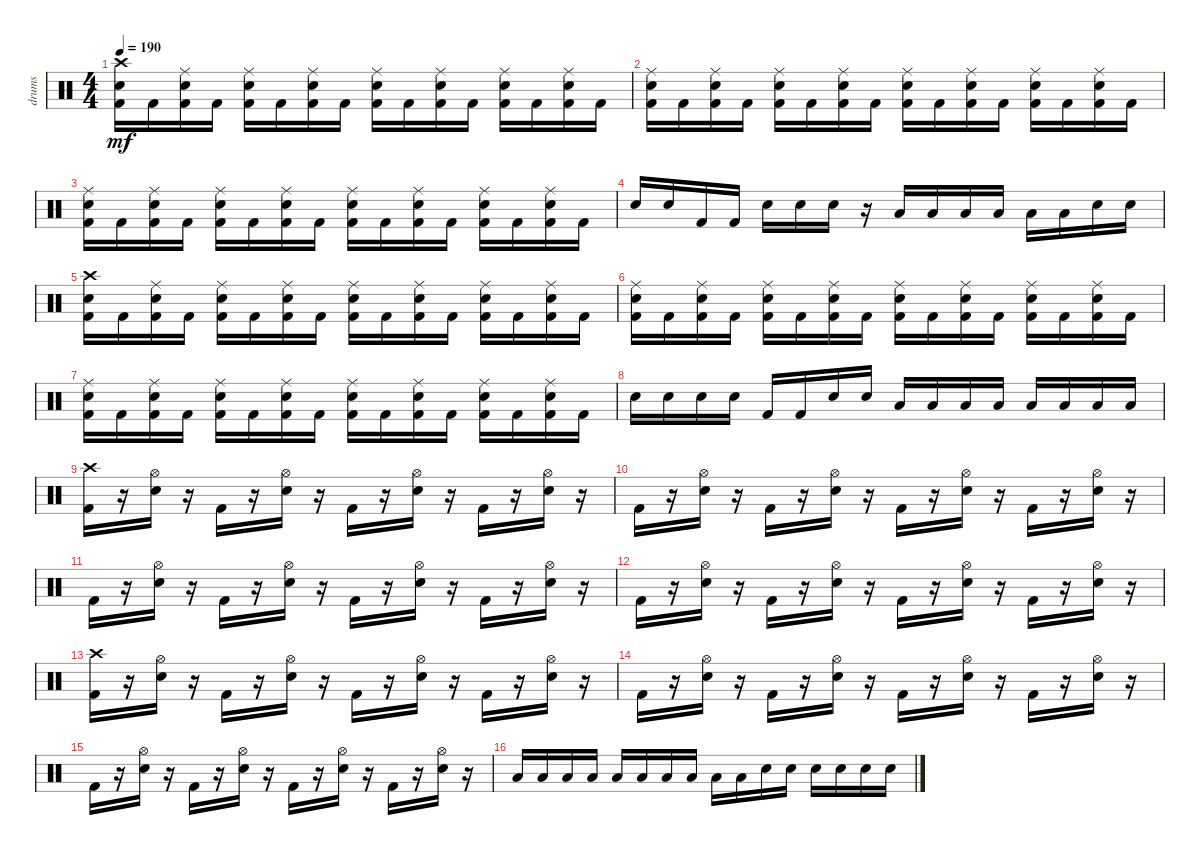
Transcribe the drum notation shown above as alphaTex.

\track ("drums               " "drums     ") {instrument percussion}
\staff {score}
\articulation defaults
\ts (4 4)
\tempo 190
\clef neutral
\ks c
("Kick (hit) 2" "Snare (hit) 2" "Crash high (hit)").16{dy mf} "Kick (hit) 2".16 ("Kick (hit) 2" "Ride (middle)" "Snare (hit) 2").16 "Kick (hit) 2".16 ("Kick (hit) 2" "Snare (hit) 2" "Ride (middle)").16 "Kick (hit) 2".16 ("Kick (hit) 2" "Ride (middle)" "Snare (hit) 2").16 "Kick (hit) 2".16 ("Kick (hit) 2" "Snare (hit) 2" "Ride (middle)").16 "Kick (hit) 2".16 ("Kick (hit) 2" "Ride (middle)" "Snare (hit) 2").16 "Kick (hit) 2".16 ("Kick (hit) 2" "Snare (hit) 2" "Ride (middle)").16 "Kick (hit) 2".16 ("Kick (hit) 2" "Ride (middle)" "Snare (hit) 2").16 "Kick (hit) 2".16 |
("Kick (hit) 2" "Snare (hit) 2" "Ride (middle)").16 "Kick (hit) 2".16 ("Kick (hit) 2" "Ride (middle)" "Snare (hit) 2").16 "Kick (hit) 2".16 ("Kick (hit) 2" "Snare (hit) 2" "Ride (middle)").16 "Kick (hit) 2".16 ("Kick (hit) 2" "Ride (middle)" "Snare (hit) 2").16 "Kick (hit) 2".16 ("Kick (hit) 2" "Snare (hit) 2" "Ride (middle)").16 "Kick (hit) 2".16 ("Kick (hit) 2" "Ride (middle)" "Snare (hit) 2").16 "Kick (hit) 2".16 ("Kick (hit) 2" "Snare (hit) 2" "Ride (middle)").16 "Kick (hit) 2".16 ("Kick (hit) 2" "Ride (middle)" "Snare (hit) 2").16 "Kick (hit) 2".16 |
("Kick (hit) 2" "Snare (hit) 2" "Ride (middle)").16 "Kick (hit) 2".16 ("Kick (hit) 2" "Ride (middle)" "Snare (hit) 2").16 "Kick (hit) 2".16 ("Kick (hit) 2" "Snare (hit) 2" "Ride (middle)").16 "Kick (hit) 2".16 ("Kick (hit) 2" "Ride (middle)" "Snare (hit) 2").16 "Kick (hit) 2".16 ("Kick (hit) 2" "Snare (hit) 2" "Ride (middle)").16 "Kick (hit) 2".16 ("Kick (hit) 2" "Ride (middle)" "Snare (hit) 2").16 "Kick (hit) 2".16 ("Kick (hit) 2" "Snare (hit) 2" "Ride (middle)").16 "Kick (hit) 2".16 ("Kick (hit) 2" "Ride (middle)" "Snare (hit) 2").16 "Kick (hit) 2".16 |
"Snare (hit) 2".16 "Snare (hit) 2".16 "Kick (hit) 2".16 "Kick (hit) 2".16 "Snare (hit) 2".16 "Snare (hit) 2".16 "Snare (hit) 2".16 r.16 "Low Floor Tom (hit)".16 "Low Floor Tom (hit)".16 "Low Floor Tom (hit)".16 "Low Tom (hit)".16 "Low Tom (hit)".16 "Low Tom (hit)".16 "Snare (hit) 2".16 "Snare (hit) 2".16 |
("Kick (hit) 2" "Snare (hit) 2" "Crash high (hit)").16 "Kick (hit) 2".16 ("Kick (hit) 2" "Ride (middle)" "Snare (hit) 2").16 "Kick (hit) 2".16 ("Kick (hit) 2" "Snare (hit) 2" "Ride (middle)").16 "Kick (hit) 2".16 ("Kick (hit) 2" "Ride (middle)" "Snare (hit) 2").16 "Kick (hit) 2".16 ("Kick (hit) 2" "Snare (hit) 2" "Ride (middle)").16 "Kick (hit) 2".16 ("Kick (hit) 2" "Ride (middle)" "Snare (hit) 2").16 "Kick (hit) 2".16 ("Kick (hit) 2" "Snare (hit) 2" "Ride (middle)").16 "Kick (hit) 2".16 ("Kick (hit) 2" "Ride (middle)" "Snare (hit) 2").16 "Kick (hit) 2".16 |
("Kick (hit) 2" "Snare (hit) 2" "Ride (middle)").16 "Kick (hit) 2".16 ("Kick (hit) 2" "Ride (middle)" "Snare (hit) 2").16 "Kick (hit) 2".16 ("Kick (hit) 2" "Snare (hit) 2" "Ride (middle)").16 "Kick (hit) 2".16 ("Kick (hit) 2" "Ride (middle)" "Snare (hit) 2").16 "Kick (hit) 2".16 ("Kick (hit) 2" "Snare (hit) 2" "Ride (middle)").16 "Kick (hit) 2".16 ("Kick (hit) 2" "Ride (middle)" "Snare (hit) 2").16 "Kick (hit) 2".16 ("Kick (hit) 2" "Snare (hit) 2" "Ride (middle)").16 "Kick (hit) 2".16 ("Kick (hit) 2" "Ride (middle)" "Snare (hit) 2").16 "Kick (hit) 2".16 |
("Kick (hit) 2" "Snare (hit) 2" "Ride (middle)").16 "Kick (hit) 2".16 ("Kick (hit) 2" "Ride (middle)" "Snare (hit) 2").16 "Kick (hit) 2".16 ("Kick (hit) 2" "Snare (hit) 2" "Ride (middle)").16 "Kick (hit) 2".16 ("Kick (hit) 2" "Ride (middle)" "Snare (hit) 2").16 "Kick (hit) 2".16 ("Kick (hit) 2" "Snare (hit) 2" "Ride (middle)").16 "Kick (hit) 2".16 ("Kick (hit) 2" "Ride (middle)" "Snare (hit) 2").16 "Kick (hit) 2".16 ("Kick (hit) 2" "Snare (hit) 2" "Ride (middle)").16 "Kick (hit) 2".16 ("Kick (hit) 2" "Ride (middle)" "Snare (hit) 2").16 "Kick (hit) 2".16 |
"Snare (hit) 2".16 "Snare (hit) 2".16 "Snare (hit) 2".16 "Snare (hit) 2".16 "Kick (hit) 2".16 "Kick (hit) 2".16 "Snare (hit) 2".16 "Snare (hit) 2".16 "Low Tom (hit)".16 "Low Tom (hit)".16 "Low Tom (hit)".16 "Low Tom (hit)".16 "Low Floor Tom (hit)".16 "Low Floor Tom (hit)".16 "Low Floor Tom (hit)".16 "Low Floor Tom (hit)".16 |
("Kick (hit) 2" "Crash high (hit)").16 r.16 ("Snare (hit) 2" "Hi-Hat (open)").16 r.16 "Kick (hit) 2".16 r.16 ("Snare (hit) 2" "Hi-Hat (open)").16 r.16 "Kick (hit) 2".16 r.16 ("Snare (hit) 2" "Hi-Hat (open)").16 r.16 "Kick (hit) 2".16 r.16 ("Snare (hit) 2" "Hi-Hat (open)").16 r.16 |
"Kick (hit) 2".16 r.16 ("Snare (hit) 2" "Hi-Hat (open)").16 r.16 "Kick (hit) 2".16 r.16 ("Snare (hit) 2" "Hi-Hat (open)").16 r.16 "Kick (hit) 2".16 r.16 ("Snare (hit) 2" "Hi-Hat (open)").16 r.16 "Kick (hit) 2".16 r.16 ("Snare (hit) 2" "Hi-Hat (open)").16 r.16 |
"Kick (hit) 2".16 r.16 ("Snare (hit) 2" "Hi-Hat (open)").16 r.16 "Kick (hit) 2".16 r.16 ("Snare (hit) 2" "Hi-Hat (open)").16 r.16 "Kick (hit) 2".16 r.16 ("Snare (hit) 2" "Hi-Hat (open)").16 r.16 "Kick (hit) 2".16 r.16 ("Snare (hit) 2" "Hi-Hat (open)").16 r.16 |
"Kick (hit) 2".16 r.16 ("Snare (hit) 2" "Hi-Hat (open)").16 r.16 "Kick (hit) 2".16 r.16 ("Snare (hit) 2" "Hi-Hat (open)").16 r.16 "Kick (hit) 2".16 r.16 ("Snare (hit) 2" "Hi-Hat (open)").16 r.16 "Kick (hit) 2".16 r.16 ("Snare (hit) 2" "Hi-Hat (open)").16 r.16 |
("Kick (hit) 2" "Crash high (hit)").16 r.16 ("Snare (hit) 2" "Hi-Hat (open)").16 r.16 "Kick (hit) 2".16 r.16 ("Snare (hit) 2" "Hi-Hat (open)").16 r.16 "Kick (hit) 2".16 r.16 ("Snare (hit) 2" "Hi-Hat (open)").16 r.16 "Kick (hit) 2".16 r.16 ("Snare (hit) 2" "Hi-Hat (open)").16 r.16 |
"Kick (hit) 2".16 r.16 ("Snare (hit) 2" "Hi-Hat (open)").16 r.16 "Kick (hit) 2".16 r.16 ("Snare (hit) 2" "Hi-Hat (open)").16 r.16 "Kick (hit) 2".16 r.16 ("Snare (hit) 2" "Hi-Hat (open)").16 r.16 "Kick (hit) 2".16 r.16 ("Snare (hit) 2" "Hi-Hat (open)").16 r.16 |
"Kick (hit) 2".16 r.16 ("Snare (hit) 2" "Hi-Hat (open)").16 r.16 "Kick (hit) 2".16 r.16 ("Snare (hit) 2" "Hi-Hat (open)").16 r.16 "Kick (hit) 2".16 r.16 ("Snare (hit) 2" "Hi-Hat (open)").16 r.16 "Kick (hit) 2".16 r.16 ("Snare (hit) 2" "Hi-Hat (open)").16 r.16 |
"Low Tom (hit)".16 "Low Tom (hit)".16 "Low Tom (hit)".16 "Low Floor Tom (hit)".16 "Low Floor Tom (hit)".16 "Low Floor Tom (hit)".16 "Low Tom (hit)".16 "Low Tom (hit)".16 "Low Tom (hit)".16 "Low Tom (hit)".16 "Snare (hit) 2".16 "Snare (hit) 2".16 "Snare (hit) 2".16 "Snare (hit) 2".16 "Snare (hit) 2".16 "Snare (hit) 2".16
